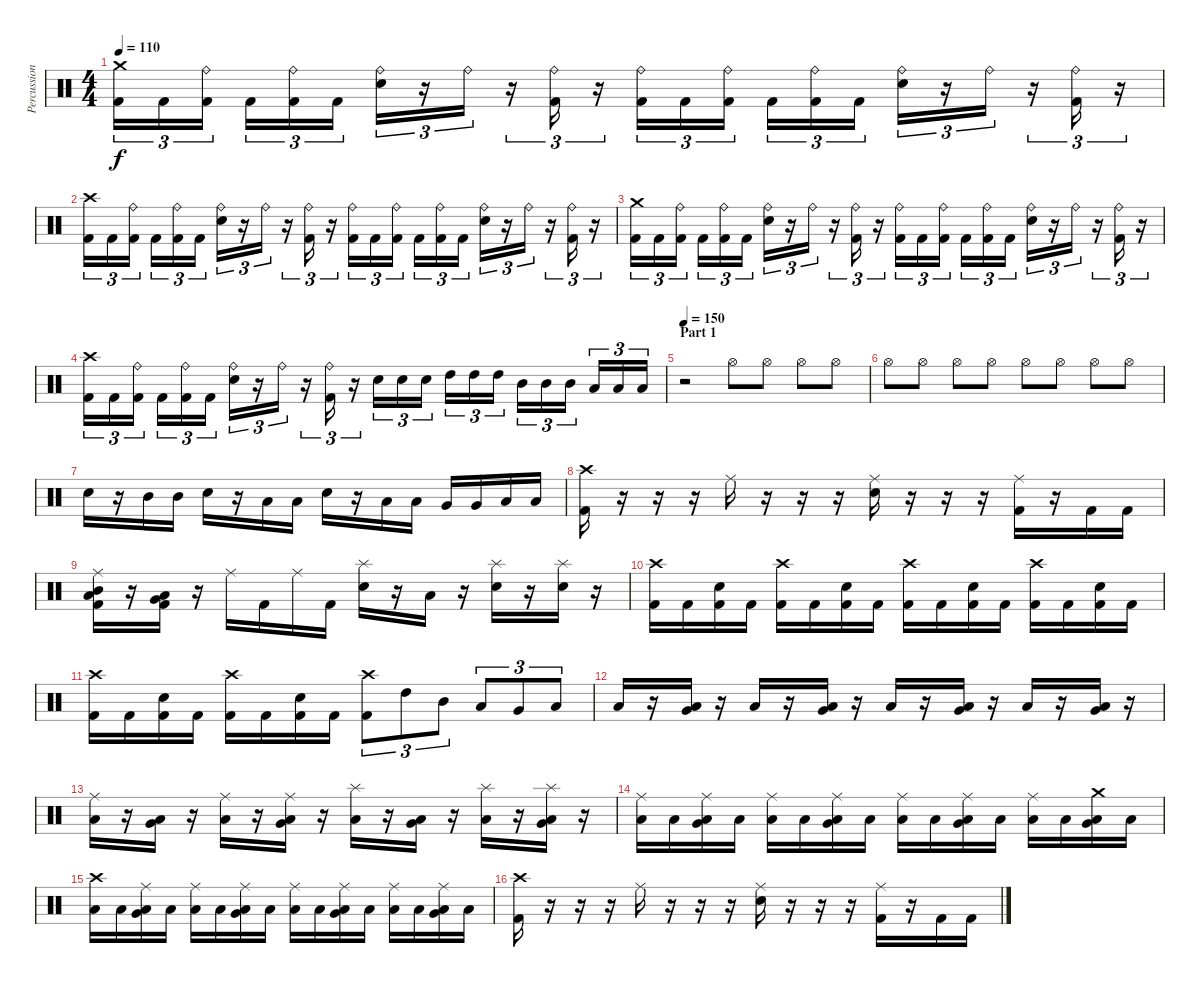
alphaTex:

\track ("Percussion" "Percussion") {instrument percussion}
\staff {score}
\articulation defaults
\ts (4 4)
\tempo 110
\clef neutral
\ks c
("Crash medium (hit)" "Kick (hit) 2").16{tu (3 2) dy f} "Kick (hit) 2".16{tu (3 2)} ("Ride (bell)" "Kick (hit) 2").16{tu (3 2)} "Kick (hit) 2".16{tu (3 2)} ("Ride (bell)" "Kick (hit) 2").16{tu (3 2)} "Kick (hit) 2".16{tu (3 2)} ("Ride (bell)" "Electric Snare (hit)").16{tu (3 2)} r.16{tu (3 2)} "Ride (bell)".16{tu (3 2)} r.16{tu (3 2)} ("Ride (bell)" "Kick (hit) 2").16{tu (3 2)} r.16{tu (3 2)} ("Ride (bell)" "Kick (hit) 2").16{tu (3 2)} "Kick (hit) 2".16{tu (3 2)} ("Ride (bell)" "Kick (hit) 2").16{tu (3 2)} "Kick (hit) 2".16{tu (3 2)} ("Ride (bell)" "Kick (hit) 2").16{tu (3 2)} "Kick (hit) 2".16{tu (3 2)} ("Ride (bell)" "Electric Snare (hit)").16{tu (3 2)} r.16{tu (3 2)} "Ride (bell)".16{tu (3 2)} r.16{tu (3 2)} ("Ride (bell)" "Kick (hit) 2").16{tu (3 2)} r.16{tu (3 2)} |
("Crash high (hit)" "Kick (hit) 2").16{tu (3 2)} "Kick (hit) 2".16{tu (3 2)} ("Ride (bell)" "Kick (hit) 2").16{tu (3 2)} "Kick (hit) 2".16{tu (3 2)} ("Ride (bell)" "Kick (hit) 2").16{tu (3 2)} "Kick (hit) 2".16{tu (3 2)} ("Ride (bell)" "Electric Snare (hit)").16{tu (3 2)} r.16{tu (3 2)} "Ride (bell)".16{tu (3 2)} r.16{tu (3 2)} ("Ride (bell)" "Kick (hit) 2").16{tu (3 2)} r.16{tu (3 2)} ("Ride (bell)" "Kick (hit) 2").16{tu (3 2)} "Kick (hit) 2".16{tu (3 2)} ("Ride (bell)" "Kick (hit) 2").16{tu (3 2)} "Kick (hit) 2".16{tu (3 2)} ("Ride (bell)" "Kick (hit) 2").16{tu (3 2)} "Kick (hit) 2".16{tu (3 2)} ("Ride (bell)" "Electric Snare (hit)").16{tu (3 2)} r.16{tu (3 2)} "Ride (bell)".16{tu (3 2)} r.16{tu (3 2)} ("Ride (bell)" "Kick (hit) 2").16{tu (3 2)} r.16{tu (3 2)} |
("Crash medium (hit)" "Kick (hit) 2").16{tu (3 2)} "Kick (hit) 2".16{tu (3 2)} ("Ride (bell)" "Kick (hit) 2").16{tu (3 2)} "Kick (hit) 2".16{tu (3 2)} ("Ride (bell)" "Kick (hit) 2").16{tu (3 2)} "Kick (hit) 2".16{tu (3 2)} ("Ride (bell)" "Electric Snare (hit)").16{tu (3 2)} r.16{tu (3 2)} "Ride (bell)".16{tu (3 2)} r.16{tu (3 2)} ("Ride (bell)" "Kick (hit) 2").16{tu (3 2)} r.16{tu (3 2)} ("Ride (bell)" "Kick (hit) 2").16{tu (3 2)} "Kick (hit) 2".16{tu (3 2)} ("Ride (bell)" "Kick (hit) 2").16{tu (3 2)} "Kick (hit) 2".16{tu (3 2)} ("Ride (bell)" "Kick (hit) 2").16{tu (3 2)} "Kick (hit) 2".16{tu (3 2)} ("Ride (bell)" "Electric Snare (hit)").16{tu (3 2)} r.16{tu (3 2)} "Ride (bell)".16{tu (3 2)} r.16{tu (3 2)} ("Ride (bell)" "Kick (hit) 2").16{tu (3 2)} r.16{tu (3 2)} |
("Crash high (hit)" "Kick (hit) 2").16{tu (3 2)} "Kick (hit) 2".16{tu (3 2)} ("Ride (bell)" "Kick (hit) 2").16{tu (3 2)} "Kick (hit) 2".16{tu (3 2)} ("Ride (bell)" "Kick (hit) 2").16{tu (3 2)} "Kick (hit) 2".16{tu (3 2)} ("Ride (bell)" "Electric Snare (hit)").16{tu (3 2)} r.16{tu (3 2)} "Ride (bell)".16{tu (3 2)} r.16{tu (3 2)} ("Ride (bell)" "Kick (hit) 2").16{tu (3 2)} r.16{tu (3 2)} "Electric Snare (hit)".16{tu (3 2)} "Electric Snare (hit)".16{tu (3 2)} "Electric Snare (hit)".16{tu (3 2)} "High Tom (hit)".16{tu (3 2)} "High Tom (hit)".16{tu (3 2)} "High Tom (hit)".16{tu (3 2)} "Mid Tom (hit)".16{tu (3 2)} "Mid Tom (hit)".16{tu (3 2)} "Mid Tom (hit)".16{tu (3 2)} "Low Tom (hit)".16{tu (3 2)} "Low Tom (hit)".16{tu (3 2)} "Low Tom (hit)".16{tu (3 2)} |
\section ("" "Part 1")
\tempo 150
r.2 "Hi-Hat (open)".8 "Hi-Hat (open)".8 "Hi-Hat (open)".8 "Hi-Hat (open)".8 |
"Hi-Hat (open)".8 "Hi-Hat (open)".8 "Hi-Hat (open)".8 "Hi-Hat (open)".8 "Hi-Hat (open)".8 "Hi-Hat (open)".8 "Hi-Hat (open)".8 "Hi-Hat (open)".8 |
"Electric Snare (hit)".16 r.16 "Mid Tom (hit)".16 "Mid Tom (hit)".16 "Electric Snare (hit)".16 r.16 "Low Tom (hit)".16 "Low Tom (hit)".16 "Electric Snare (hit)".16 r.16 "Low Tom (hit)".16 "Low Tom (hit)".16 "Very Low Tom (hit)".16 "Very Low Tom (hit)".16 "Low Floor Tom (hit)".16 "Low Floor Tom (hit)".16 |
("Crash high (hit)" "Kick (hit) 2").16 r.16 r.16 r.16 "Ride (middle)".16 r.16 r.16 r.16 ("Ride (middle)" "Electric Snare (hit)").16 r.16 r.16 r.16 ("Ride (middle)" "Kick (hit) 2").16 r.16 "Kick (hit) 2".16 "Kick (hit) 2".16 |
("Ride (middle)" "Mid Tom (hit)" "Low Tom (hit)" "Kick (hit) 2").16 r.16 ("Very Low Tom (hit)" "Low Floor Tom (hit)" "Kick (hit) 2").16 r.16 "Ride (middle)".16 "Kick (hit) 2".16 "Ride (middle)".16 "Kick (hit) 2".16 ("Splash (hit)" "Electric Snare (hit)").16 r.16 "Low Floor Tom (hit)".16 r.16 ("Splash (hit)" "Electric Snare (hit)").16 r.16 ("Splash (hit)" "Electric Snare (hit)").16 r.16 |
("Crash high (hit)" "Kick (hit) 2").16 "Kick (hit) 2".16 ("Electric Snare (hit)" "Kick (hit) 2").16 "Kick (hit) 2".16 ("Crash high (hit)" "Kick (hit) 2").16 "Kick (hit) 2".16 ("Electric Snare (hit)" "Kick (hit) 2").16 "Kick (hit) 2".16 ("Crash high (hit)" "Kick (hit) 2").16 "Kick (hit) 2".16 ("Electric Snare (hit)" "Kick (hit) 2").16 "Kick (hit) 2".16 ("Crash high (hit)" "Kick (hit) 2").16 "Kick (hit) 2".16 ("Electric Snare (hit)" "Kick (hit) 2").16 "Kick (hit) 2".16 |
("Crash high (hit)" "Kick (hit) 2").16 "Kick (hit) 2".16 ("Electric Snare (hit)" "Kick (hit) 2").16 "Kick (hit) 2".16 ("Crash high (hit)" "Kick (hit) 2").16 "Kick (hit) 2".16 ("Electric Snare (hit)" "Kick (hit) 2").16 "Kick (hit) 2".16 ("Crash high (hit)" "Kick (hit) 2").8{tu (3 2)} "High Tom (hit)".8{tu (3 2)} "Mid Tom (hit)".8{tu (3 2)} "Low Tom (hit)".8{tu (3 2)} "Very Low Tom (hit)".8{tu (3 2)} "Low Floor Tom (hit)".8{tu (3 2)} |
"Low Floor Tom (hit)".16 r.16 ("Very Low Tom (hit)" "Low Floor Tom (hit)").16 r.16 "Low Floor Tom (hit)".16 r.16 ("Very Low Tom (hit)" "Low Floor Tom (hit)").16 r.16 "Low Floor Tom (hit)".16 r.16 ("Very Low Tom (hit)" "Low Floor Tom (hit)").16 r.16 "Low Floor Tom (hit)".16 r.16 ("Very Low Tom (hit)" "Low Floor Tom (hit)").16 r.16 |
("Ride (middle)" "Low Floor Tom (hit)").16 r.16 ("Very Low Tom (hit)" "Low Floor Tom (hit)").16 r.16 ("Ride (middle)" "Low Floor Tom (hit)").16 r.16 ("Ride (middle)" "Very Low Tom (hit)" "Low Floor Tom (hit)").16 r.16 ("Splash (hit)" "Low Floor Tom (hit)").16 r.16 ("Very Low Tom (hit)" "Low Floor Tom (hit)").16 r.16 ("Splash (hit)" "Low Floor Tom (hit)").16 r.16 ("Splash (hit)" "Very Low Tom (hit)" "Low Floor Tom (hit)").16 r.16 |
("Ride (middle)" "Low Floor Tom (hit)").16 "Low Floor Tom (hit)".16 ("Ride (middle)" "Very Low Tom (hit)" "Low Floor Tom (hit)").16 "Low Floor Tom (hit)".16 ("Ride (middle)" "Low Floor Tom (hit)").16 "Low Floor Tom (hit)".16 ("Ride (middle)" "Very Low Tom (hit)" "Low Floor Tom (hit)").16 "Low Floor Tom (hit)".16 ("Ride (middle)" "Low Floor Tom (hit)").16 "Low Floor Tom (hit)".16 ("Ride (middle)" "Very Low Tom (hit)" "Low Floor Tom (hit)").16 "Low Floor Tom (hit)".16 ("Ride (middle)" "Low Floor Tom (hit)").16 "Low Floor Tom (hit)".16 ("Crash medium (hit)" "Very Low Tom (hit)" "Low Floor Tom (hit)").16 "Low Floor Tom (hit)".16 |
("Crash high (hit)" "Low Floor Tom (hit)").16 "Low Floor Tom (hit)".16 ("Ride (middle)" "Very Low Tom (hit)" "Low Floor Tom (hit)").16 "Low Floor Tom (hit)".16 ("Ride (middle)" "Low Floor Tom (hit)").16 "Low Floor Tom (hit)".16 ("Ride (middle)" "Very Low Tom (hit)" "Low Floor Tom (hit)").16 "Low Floor Tom (hit)".16 ("Ride (middle)" "Low Floor Tom (hit)").16 "Low Floor Tom (hit)".16 ("Ride (middle)" "Very Low Tom (hit)" "Low Floor Tom (hit)").16 "Low Floor Tom (hit)".16 ("Ride (middle)" "Low Floor Tom (hit)").16 "Low Floor Tom (hit)".16 ("Ride (middle)" "Very Low Tom (hit)" "Low Floor Tom (hit)").16 "Low Floor Tom (hit)".16 |
("Crash high (hit)" "Kick (hit) 2").16 r.16 r.16 r.16 "Ride (middle)".16 r.16 r.16 r.16 ("Ride (middle)" "Electric Snare (hit)").16 r.16 r.16 r.16 ("Ride (middle)" "Kick (hit) 2").16 r.16 "Kick (hit) 2".16 "Kick (hit) 2".16
